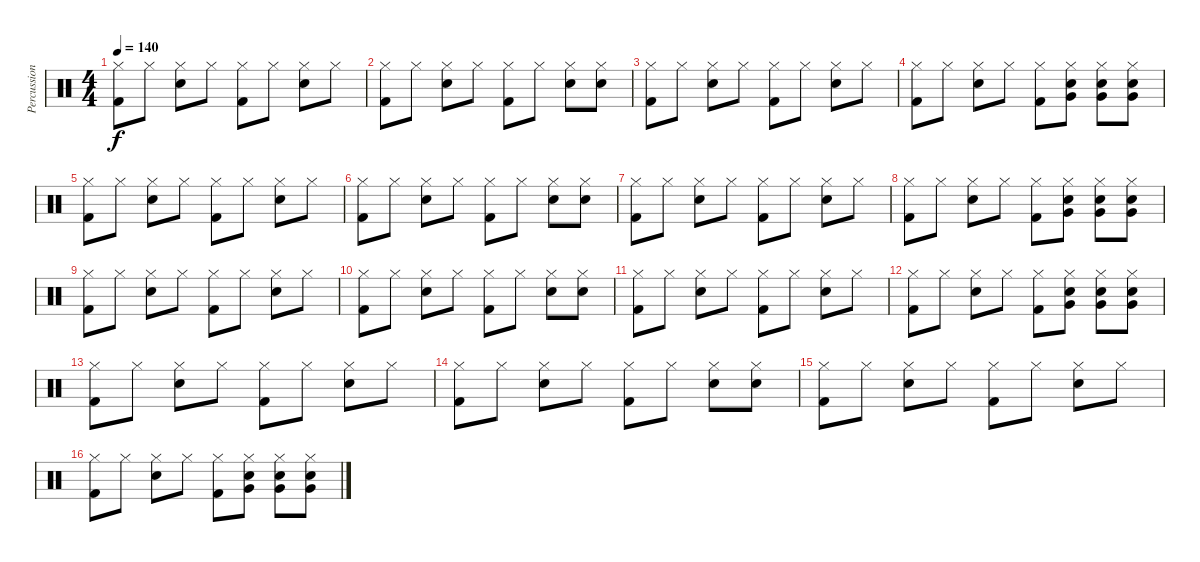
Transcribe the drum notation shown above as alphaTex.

\track ("Percussion" "Percussion") {instrument percussion}
\staff {score}
\articulation defaults
\ts (4 4)
\tempo 140
\clef neutral
\ks c
("Hi-Hat (closed)" "Kick (hit) 2").8{dy f} "Hi-Hat (closed)".8 ("Hi-Hat (closed)" "Snare (hit) 2").8 "Hi-Hat (closed)".8 ("Hi-Hat (closed)" "Kick (hit) 2").8 "Hi-Hat (closed)".8 ("Hi-Hat (closed)" "Snare (hit) 2").8 "Hi-Hat (closed)".8 |
("Hi-Hat (closed)" "Kick (hit) 2").8 "Hi-Hat (closed)".8 ("Hi-Hat (closed)" "Snare (hit) 2").8 "Hi-Hat (closed)".8 ("Hi-Hat (closed)" "Kick (hit) 2").8 "Hi-Hat (closed)".8 ("Hi-Hat (closed)" "Snare (hit) 2").8 ("Hi-Hat (closed)" "Snare (hit) 2").8 |
("Hi-Hat (closed)" "Kick (hit) 2").8 "Hi-Hat (closed)".8 ("Hi-Hat (closed)" "Snare (hit) 2").8 "Hi-Hat (closed)".8 ("Hi-Hat (closed)" "Kick (hit) 2").8 "Hi-Hat (closed)".8 ("Hi-Hat (closed)" "Snare (hit) 2").8 "Hi-Hat (closed)".8 |
("Hi-Hat (closed)" "Kick (hit) 2").8 "Hi-Hat (closed)".8 ("Hi-Hat (closed)" "Snare (hit) 2").8 "Hi-Hat (closed)".8 ("Hi-Hat (closed)" "Kick (hit) 2").8 ("Hi-Hat (closed)" "Snare (hit) 2" "Very Low Tom (hit)").8 ("Hi-Hat (closed)" "Snare (hit) 2" "Very Low Tom (hit)").8 ("Hi-Hat (closed)" "Snare (hit) 2" "Very Low Tom (hit)").8 |
("Hi-Hat (closed)" "Kick (hit) 2").8 "Hi-Hat (closed)".8 ("Hi-Hat (closed)" "Snare (hit) 2").8 "Hi-Hat (closed)".8 ("Hi-Hat (closed)" "Kick (hit) 2").8 "Hi-Hat (closed)".8 ("Hi-Hat (closed)" "Snare (hit) 2").8 "Hi-Hat (closed)".8 |
("Hi-Hat (closed)" "Kick (hit) 2").8 "Hi-Hat (closed)".8 ("Hi-Hat (closed)" "Snare (hit) 2").8 "Hi-Hat (closed)".8 ("Hi-Hat (closed)" "Kick (hit) 2").8 "Hi-Hat (closed)".8 ("Hi-Hat (closed)" "Snare (hit) 2").8 ("Hi-Hat (closed)" "Snare (hit) 2").8 |
("Hi-Hat (closed)" "Kick (hit) 2").8 "Hi-Hat (closed)".8 ("Hi-Hat (closed)" "Snare (hit) 2").8 "Hi-Hat (closed)".8 ("Hi-Hat (closed)" "Kick (hit) 2").8 "Hi-Hat (closed)".8 ("Hi-Hat (closed)" "Snare (hit) 2").8 "Hi-Hat (closed)".8 |
("Hi-Hat (closed)" "Kick (hit) 2").8 "Hi-Hat (closed)".8 ("Hi-Hat (closed)" "Snare (hit) 2").8 "Hi-Hat (closed)".8 ("Hi-Hat (closed)" "Kick (hit) 2").8 ("Hi-Hat (closed)" "Snare (hit) 2" "Very Low Tom (hit)").8 ("Hi-Hat (closed)" "Snare (hit) 2" "Very Low Tom (hit)").8 ("Hi-Hat (closed)" "Snare (hit) 2" "Very Low Tom (hit)").8 |
("Hi-Hat (closed)" "Kick (hit) 2").8 "Hi-Hat (closed)".8 ("Hi-Hat (closed)" "Snare (hit) 2").8 "Hi-Hat (closed)".8 ("Hi-Hat (closed)" "Kick (hit) 2").8 "Hi-Hat (closed)".8 ("Hi-Hat (closed)" "Snare (hit) 2").8 "Hi-Hat (closed)".8 |
("Hi-Hat (closed)" "Kick (hit) 2").8 "Hi-Hat (closed)".8 ("Hi-Hat (closed)" "Snare (hit) 2").8 "Hi-Hat (closed)".8 ("Hi-Hat (closed)" "Kick (hit) 2").8 "Hi-Hat (closed)".8 ("Hi-Hat (closed)" "Snare (hit) 2").8 ("Hi-Hat (closed)" "Snare (hit) 2").8 |
("Hi-Hat (closed)" "Kick (hit) 2").8 "Hi-Hat (closed)".8 ("Hi-Hat (closed)" "Snare (hit) 2").8 "Hi-Hat (closed)".8 ("Hi-Hat (closed)" "Kick (hit) 2").8 "Hi-Hat (closed)".8 ("Hi-Hat (closed)" "Snare (hit) 2").8 "Hi-Hat (closed)".8 |
("Hi-Hat (closed)" "Kick (hit) 2").8 "Hi-Hat (closed)".8 ("Hi-Hat (closed)" "Snare (hit) 2").8 "Hi-Hat (closed)".8 ("Hi-Hat (closed)" "Kick (hit) 2").8 ("Hi-Hat (closed)" "Snare (hit) 2" "Very Low Tom (hit)").8 ("Hi-Hat (closed)" "Snare (hit) 2" "Very Low Tom (hit)").8 ("Hi-Hat (closed)" "Snare (hit) 2" "Very Low Tom (hit)").8 |
("Hi-Hat (closed)" "Kick (hit) 2").8 "Hi-Hat (closed)".8 ("Hi-Hat (closed)" "Snare (hit) 2").8 "Hi-Hat (closed)".8 ("Hi-Hat (closed)" "Kick (hit) 2").8 "Hi-Hat (closed)".8 ("Hi-Hat (closed)" "Snare (hit) 2").8 "Hi-Hat (closed)".8 |
("Hi-Hat (closed)" "Kick (hit) 2").8 "Hi-Hat (closed)".8 ("Hi-Hat (closed)" "Snare (hit) 2").8 "Hi-Hat (closed)".8 ("Hi-Hat (closed)" "Kick (hit) 2").8 "Hi-Hat (closed)".8 ("Hi-Hat (closed)" "Snare (hit) 2").8 ("Hi-Hat (closed)" "Snare (hit) 2").8 |
("Hi-Hat (closed)" "Kick (hit) 2").8 "Hi-Hat (closed)".8 ("Hi-Hat (closed)" "Snare (hit) 2").8 "Hi-Hat (closed)".8 ("Hi-Hat (closed)" "Kick (hit) 2").8 "Hi-Hat (closed)".8 ("Hi-Hat (closed)" "Snare (hit) 2").8 "Hi-Hat (closed)".8 |
("Hi-Hat (closed)" "Kick (hit) 2").8 "Hi-Hat (closed)".8 ("Hi-Hat (closed)" "Snare (hit) 2").8 "Hi-Hat (closed)".8 ("Hi-Hat (closed)" "Kick (hit) 2").8 ("Hi-Hat (closed)" "Snare (hit) 2" "Very Low Tom (hit)").8 ("Hi-Hat (closed)" "Snare (hit) 2" "Very Low Tom (hit)").8 ("Hi-Hat (closed)" "Snare (hit) 2" "Very Low Tom (hit)").8
